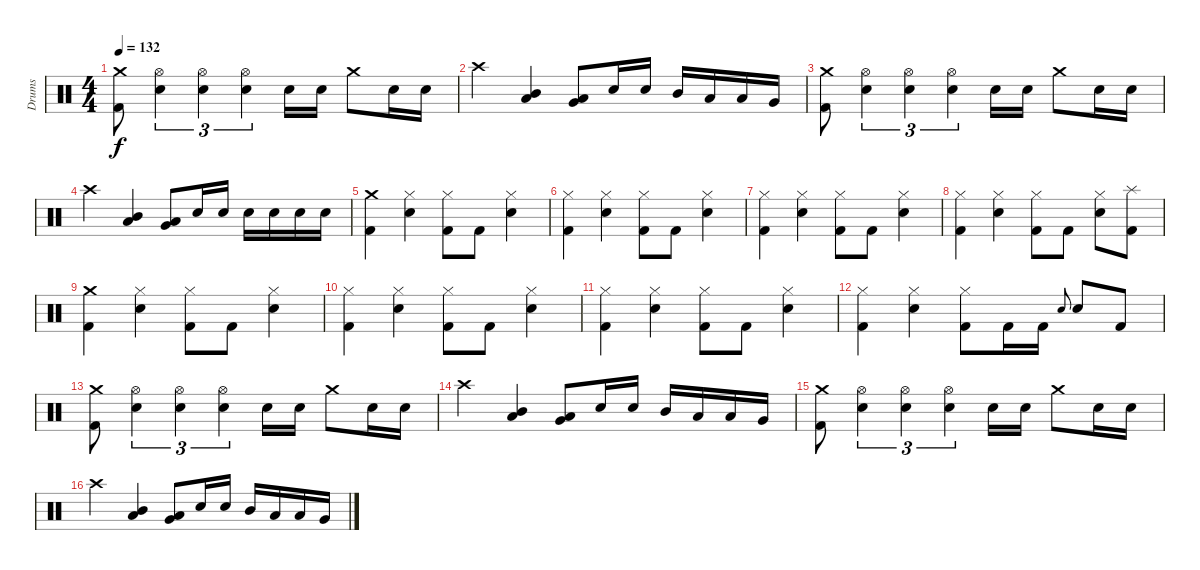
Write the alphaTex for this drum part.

\track ("Drums" "Drums") {instrument percussion}
\staff {score}
\articulation defaults
\ts (4 4)
\tempo 132
\clef neutral
\ks c
("Crash medium (hit)" "Kick (hit) 2").8{dy f} ("Hi-Hat (open)" "Snare (hit) 2").4{tu (3 2)} ("Hi-Hat (open)" "Snare (hit) 2").4{tu (3 2)} ("Hi-Hat (open)" "Snare (hit) 2").4{tu (3 2)} "Snare (hit) 2".16 "Snare (hit) 2".16 "Crash medium (hit)".8 "Snare (hit) 2".16 "Snare (hit) 2".16 |
"Crash high (hit)".4 ("Mid Tom (hit)" "Low Tom (hit)").4 ("Low Tom (hit)" "Very Low Tom (hit)").8 "Snare (hit) 2".16 "Snare (hit) 2".16 "Mid Tom (hit)".16 "Low Tom (hit)".16 "Low Tom (hit)".16 "Very Low Tom (hit)".16 |
("Crash medium (hit)" "Kick (hit) 2").8 ("Hi-Hat (open)" "Snare (hit) 2").4{tu (3 2)} ("Hi-Hat (open)" "Snare (hit) 2").4{tu (3 2)} ("Hi-Hat (open)" "Snare (hit) 2").4{tu (3 2)} "Snare (hit) 2".16 "Snare (hit) 2".16 "Crash medium (hit)".8 "Snare (hit) 2".16 "Snare (hit) 2".16 |
"Crash high (hit)".4 ("Mid Tom (hit)" "Low Tom (hit)").4 ("Low Tom (hit)" "Very Low Tom (hit)").8 "Snare (hit) 2".16 "Snare (hit) 2".16 "Snare (hit) 2".16 "Snare (hit) 2".16 "Snare (hit) 2".16 "Snare (hit) 2".16 |
("Crash medium (hit)" "Kick (hit) 2").4 ("Hi-Hat (closed)" "Snare (hit) 2").4 ("Hi-Hat (closed)" "Kick (hit) 2").8 "Kick (hit) 2".8 ("Hi-Hat (closed)" "Snare (hit) 2").4 |
("Hi-Hat (closed)" "Kick (hit) 2").4 ("Hi-Hat (closed)" "Snare (hit) 2").4 ("Hi-Hat (closed)" "Kick (hit) 2").8 "Kick (hit) 2".8 ("Hi-Hat (closed)" "Snare (hit) 2").4 |
("Hi-Hat (closed)" "Kick (hit) 2").4 ("Hi-Hat (closed)" "Snare (hit) 2").4 ("Hi-Hat (closed)" "Kick (hit) 2").8 "Kick (hit) 2".8 ("Hi-Hat (closed)" "Snare (hit) 2").4 |
("Hi-Hat (closed)" "Kick (hit) 2").4 ("Hi-Hat (closed)" "Snare (hit) 2").4 ("Hi-Hat (closed)" "Kick (hit) 2").8 "Kick (hit) 2".8 ("Hi-Hat (closed)" "Snare (hit) 2").8 ("Splash (hit)" "Kick (hit) 2").8 |
("Crash medium (hit)" "Kick (hit) 2").4 ("Hi-Hat (closed)" "Snare (hit) 2").4 ("Hi-Hat (closed)" "Kick (hit) 2").8 "Kick (hit) 2".8 ("Hi-Hat (closed)" "Snare (hit) 2").4 |
("Hi-Hat (closed)" "Kick (hit) 2").4 ("Hi-Hat (closed)" "Snare (hit) 2").4 ("Hi-Hat (closed)" "Kick (hit) 2").8 "Kick (hit) 2".8 ("Hi-Hat (closed)" "Snare (hit) 2").4 |
("Hi-Hat (closed)" "Kick (hit) 2").4 ("Hi-Hat (closed)" "Snare (hit) 2").4 ("Hi-Hat (closed)" "Kick (hit) 2").8 "Kick (hit) 2".8 ("Hi-Hat (closed)" "Snare (hit) 2").4 |
("Hi-Hat (closed)" "Kick (hit) 2").4 ("Hi-Hat (closed)" "Snare (hit) 2").4 ("Hi-Hat (closed)" "Kick (hit) 2").8 "Kick (hit) 2".16 "Kick (hit) 2".16 "Snare (hit) 2".8{gr onbeat} "Snare (hit) 2".8 "Kick (hit) 2".8 |
("Crash medium (hit)" "Kick (hit) 2").8 ("Hi-Hat (open)" "Snare (hit) 2").4{tu (3 2)} ("Hi-Hat (open)" "Snare (hit) 2").4{tu (3 2)} ("Hi-Hat (open)" "Snare (hit) 2").4{tu (3 2)} "Snare (hit) 2".16 "Snare (hit) 2".16 "Crash medium (hit)".8 "Snare (hit) 2".16 "Snare (hit) 2".16 |
"Crash high (hit)".4 ("Mid Tom (hit)" "Low Tom (hit)").4 ("Low Tom (hit)" "Very Low Tom (hit)").8 "Snare (hit) 2".16 "Snare (hit) 2".16 "Mid Tom (hit)".16 "Low Tom (hit)".16 "Low Tom (hit)".16 "Very Low Tom (hit)".16 |
("Crash medium (hit)" "Kick (hit) 2").8 ("Hi-Hat (open)" "Snare (hit) 2").4{tu (3 2)} ("Hi-Hat (open)" "Snare (hit) 2").4{tu (3 2)} ("Hi-Hat (open)" "Snare (hit) 2").4{tu (3 2)} "Snare (hit) 2".16 "Snare (hit) 2".16 "Crash medium (hit)".8 "Snare (hit) 2".16 "Snare (hit) 2".16 |
"Crash high (hit)".4 ("Mid Tom (hit)" "Low Tom (hit)").4 ("Low Tom (hit)" "Very Low Tom (hit)").8 "Snare (hit) 2".16 "Snare (hit) 2".16 "Mid Tom (hit)".16 "Low Tom (hit)".16 "Low Tom (hit)".16 "Very Low Tom (hit)".16
